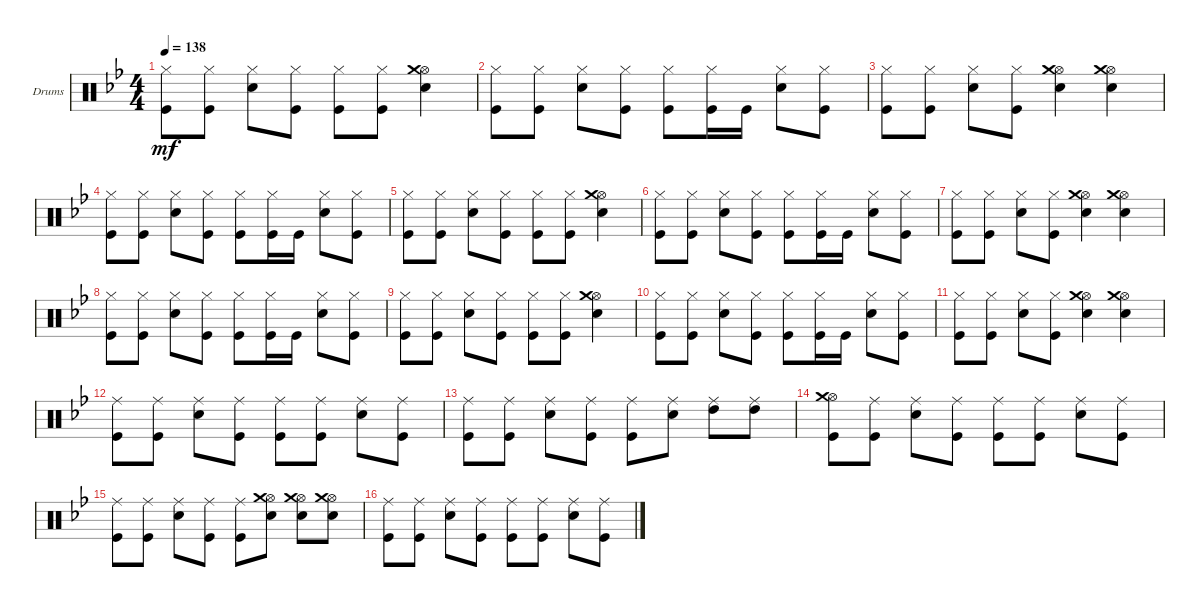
\defaultSystemsLayout 4
\bracketExtendMode groupsimilarinstruments
\firstSystemTrackNameOrientation horizontal
\otherSystemsTrackNameOrientation horizontal
\track ("Drumkit" "Drums") {instrument percussion}
\staff {score}
\articulation defaults
\ts (4 4)
\tempo 138
\clef neutral
\ks gminor
("Hi-Hat (closed)" "Kick (hit)").8{dy mf} ("Hi-Hat (closed)" "Kick (hit)").8 ("Hi-Hat (closed)" "Snare (hit) 2").8 ("Hi-Hat (closed)" "Kick (hit)").8 ("Hi-Hat (closed)" "Kick (hit)").8 ("Hi-Hat (closed)" "Kick (hit)").8 ("Hi-Hat (open)" "Crash medium (hit)" "Snare (hit) 2").4 |
("Hi-Hat (closed)" "Kick (hit)").8 ("Hi-Hat (closed)" "Kick (hit)").8 ("Hi-Hat (closed)" "Snare (hit) 2").8 ("Hi-Hat (closed)" "Kick (hit)").8 ("Hi-Hat (closed)" "Kick (hit)").8 ("Hi-Hat (closed)" "Kick (hit)").16 "Kick (hit)".16 ("Hi-Hat (closed)" "Snare (hit) 2").8 ("Hi-Hat (closed)" "Kick (hit)").8 |
("Hi-Hat (closed)" "Kick (hit)").8 ("Hi-Hat (closed)" "Kick (hit)").8 ("Hi-Hat (closed)" "Snare (hit) 2").8 ("Hi-Hat (closed)" "Kick (hit)").8 ("Hi-Hat (open)" "Crash medium (hit)" "Snare (hit) 2").4 ("Hi-Hat (open)" "Crash medium (hit)" "Snare (hit) 2").4 |
("Hi-Hat (closed)" "Kick (hit)").8 ("Hi-Hat (closed)" "Kick (hit)").8 ("Hi-Hat (closed)" "Snare (hit) 2").8 ("Hi-Hat (closed)" "Kick (hit)").8 ("Hi-Hat (closed)" "Kick (hit)").8 ("Hi-Hat (closed)" "Kick (hit)").16 "Kick (hit)".16 ("Hi-Hat (closed)" "Snare (hit) 2").8 ("Hi-Hat (closed)" "Kick (hit)").8 |
("Hi-Hat (closed)" "Kick (hit)").8 ("Hi-Hat (closed)" "Kick (hit)").8 ("Hi-Hat (closed)" "Snare (hit) 2").8 ("Hi-Hat (closed)" "Kick (hit)").8 ("Hi-Hat (closed)" "Kick (hit)").8 ("Hi-Hat (closed)" "Kick (hit)").8 ("Hi-Hat (open)" "Crash medium (hit)" "Snare (hit) 2").4 |
("Hi-Hat (closed)" "Kick (hit)").8 ("Hi-Hat (closed)" "Kick (hit)").8 ("Hi-Hat (closed)" "Snare (hit) 2").8 ("Hi-Hat (closed)" "Kick (hit)").8 ("Hi-Hat (closed)" "Kick (hit)").8 ("Hi-Hat (closed)" "Kick (hit)").16 "Kick (hit)".16 ("Hi-Hat (closed)" "Snare (hit) 2").8 ("Hi-Hat (closed)" "Kick (hit)").8 |
("Hi-Hat (closed)" "Kick (hit)").8 ("Hi-Hat (closed)" "Kick (hit)").8 ("Hi-Hat (closed)" "Snare (hit) 2").8 ("Hi-Hat (closed)" "Kick (hit)").8 ("Hi-Hat (open)" "Crash medium (hit)" "Snare (hit) 2").4 ("Hi-Hat (open)" "Crash medium (hit)" "Snare (hit) 2").4 |
("Hi-Hat (closed)" "Kick (hit)").8 ("Hi-Hat (closed)" "Kick (hit)").8 ("Hi-Hat (closed)" "Snare (hit) 2").8 ("Hi-Hat (closed)" "Kick (hit)").8 ("Hi-Hat (closed)" "Kick (hit)").8 ("Hi-Hat (closed)" "Kick (hit)").16 "Kick (hit)".16 ("Hi-Hat (closed)" "Snare (hit) 2").8 ("Hi-Hat (closed)" "Kick (hit)").8 |
("Hi-Hat (closed)" "Kick (hit)").8 ("Hi-Hat (closed)" "Kick (hit)").8 ("Hi-Hat (closed)" "Snare (hit) 2").8 ("Hi-Hat (closed)" "Kick (hit)").8 ("Hi-Hat (closed)" "Kick (hit)").8 ("Hi-Hat (closed)" "Kick (hit)").8 ("Hi-Hat (open)" "Crash medium (hit)" "Snare (hit) 2").4 |
("Hi-Hat (closed)" "Kick (hit)").8 ("Hi-Hat (closed)" "Kick (hit)").8 ("Hi-Hat (closed)" "Snare (hit) 2").8 ("Hi-Hat (closed)" "Kick (hit)").8 ("Hi-Hat (closed)" "Kick (hit)").8 ("Hi-Hat (closed)" "Kick (hit)").16 "Kick (hit)".16 ("Hi-Hat (closed)" "Snare (hit) 2").8 ("Hi-Hat (closed)" "Kick (hit)").8 |
("Hi-Hat (closed)" "Kick (hit)").8 ("Hi-Hat (closed)" "Kick (hit)").8 ("Hi-Hat (closed)" "Snare (hit) 2").8 ("Hi-Hat (closed)" "Kick (hit)").8 ("Hi-Hat (open)" "Crash medium (hit)" "Snare (hit) 2").4 ("Hi-Hat (open)" "Crash medium (hit)" "Snare (hit) 2").4 |
("Ride (middle)" "Kick (hit)").8 ("Ride (middle)" "Kick (hit)").8 ("Ride (middle)" "Snare (hit) 2").8 ("Ride (middle)" "Kick (hit)").8 ("Ride (middle)" "Kick (hit)").8 ("Ride (middle)" "Kick (hit)").8 ("Ride (middle)" "Snare (hit) 2").8 ("Ride (middle)" "Kick (hit)").8 |
("Ride (middle)" "Kick (hit)").8 ("Ride (middle)" "Kick (hit)").8 ("Ride (middle)" "Snare (hit) 2").8 ("Ride (middle)" "Kick (hit)").8 ("Ride (middle)" "Kick (hit)").8 ("Ride (middle)" "Snare (hit) 2").8 ("Ride (middle)" "High Tom (hit)").8 ("Ride (middle)" "High Tom (hit)").8 |
("Hi-Hat (open)" "Crash medium (hit)" "Kick (hit)").8 ("Ride (middle)" "Kick (hit)").8 ("Ride (middle)" "Snare (hit) 2").8 ("Ride (middle)" "Kick (hit)").8 ("Ride (middle)" "Kick (hit)").8 ("Ride (middle)" "Kick (hit)").8 ("Ride (middle)" "Snare (hit) 2").8 ("Ride (middle)" "Kick (hit)").8 |
("Ride (middle)" "Kick (hit)").8 ("Ride (middle)" "Kick (hit)").8 ("Ride (middle)" "Snare (hit) 2").8 ("Ride (middle)" "Kick (hit)").8 ("Ride (middle)" "Kick (hit)").8 ("Snare (hit) 2" "Hi-Hat (open)" "Crash medium (hit)").8 ("Hi-Hat (open)" "Crash medium (hit)" "Snare (hit) 2").8 ("Hi-Hat (open)" "Crash medium (hit)" "Snare (hit) 2").8 |
("Ride (middle)" "Kick (hit)").8 ("Ride (middle)" "Kick (hit)").8 ("Ride (middle)" "Snare (hit) 2").8 ("Ride (middle)" "Kick (hit)").8 ("Ride (middle)" "Kick (hit)").8 ("Ride (middle)" "Kick (hit)").8 ("Ride (middle)" "Snare (hit) 2").8 ("Ride (middle)" "Kick (hit)").8
